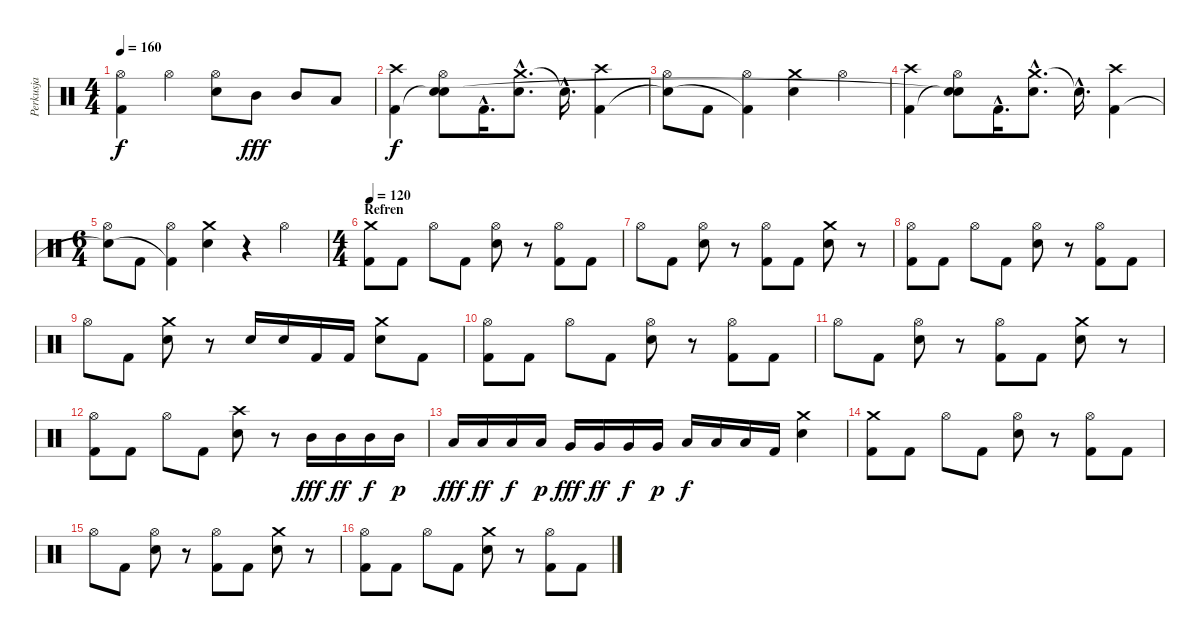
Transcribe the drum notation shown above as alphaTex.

\track ("Perkusja" "Perkusja") {instrument percussion}
\staff {score}
\articulation defaults
\ts (4 4)
\tempo 160
\clef neutral
\ks c
("Hi-Hat (open)" "Kick (hit) 2").4{dy f} "Hi-Hat (open)".4 ("Hi-Hat (open)" "Snare (hit) 2").8 "Mid Tom (hit)".8{dy fff} "Mid Tom (hit)".8 "Low Tom (hit)".8 |
("Crash high (hit)" "Kick (hit) 2").4{dy f} ("Hi-Hat (open)" "Snare (hit)"{t} "Snare (hit)").8 "Kick (hit) 2"{hac}.16{d} ("Crash medium (hit)"{hac} "Snare (hit) 2"{hac}).8{d} "Snare (hit)"{hac t}.16{d} ("Crash high (hit)" "Kick (hit) 2").4 |
("Hi-Hat (open)" "Snare (hit)"{t}).8 "Kick (hit) 2".8 ("Hi-Hat (open)" "Kick (hit) 2"{t}).4 ("Crash medium (hit)" "Snare (hit) 2").4 "Hi-Hat (open)".4 |
("Crash high (hit)" "Kick (hit) 2").4 ("Hi-Hat (open)" "Snare (hit)"{t} "Snare (hit)"{t}).8 "Kick (hit) 2"{hac}.16{d} ("Crash medium (hit)"{hac} "Snare (hit) 2"{hac}).8{d} "Snare (hit)"{hac t}.16{d} ("Crash high (hit)" "Kick (hit) 2").4 |
\ts (6 4)
("Hi-Hat (open)" "Snare (hit)"{t}).8 "Kick (hit) 2".8 ("Hi-Hat (open)" "Kick (hit) 2"{t}).4 ("Crash medium (hit)" "Snare (hit) 2").4 r.4 "Hi-Hat (open)".2 |
\ts (4 4)
\section ("" "Refren")
\tempo 120
("Crash medium (hit)" "Kick (hit) 2").8 "Kick (hit) 2".8 "Hi-Hat (open)".8 "Kick (hit) 2".8 ("Hi-Hat (open)" "Snare (hit) 2").8 r.8 ("Hi-Hat (open)" "Kick (hit) 2").8 "Kick (hit) 2".8 |
"Hi-Hat (open)".8 "Kick (hit) 2".8 ("Hi-Hat (open)" "Snare (hit) 2").8 r.8 ("Hi-Hat (open)" "Kick (hit) 2").8 "Kick (hit) 2".8 ("Crash medium (hit)" "Snare (hit) 2").8 r.8 |
("Hi-Hat (open)" "Kick (hit) 2").8 "Kick (hit) 2".8 "Hi-Hat (open)".8 "Kick (hit) 2".8 ("Hi-Hat (open)" "Snare (hit) 2").8 r.8 ("Hi-Hat (open)" "Kick (hit) 2").8 "Kick (hit) 2".8 |
"Hi-Hat (open)".8 "Kick (hit) 2".8 ("Crash medium (hit)" "Snare (hit) 2").8 r.8 "Snare (hit) 2".16 "Snare (hit) 2".16 "Kick (hit) 2".16 "Kick (hit) 2".16 ("Crash medium (hit)" "Snare (hit) 2").8 "Kick (hit) 2".8 |
("Hi-Hat (open)" "Kick (hit) 2").8 "Kick (hit) 2".8 "Hi-Hat (open)".8 "Kick (hit) 2".8 ("Hi-Hat (open)" "Snare (hit) 2").8 r.8 ("Hi-Hat (open)" "Kick (hit) 2").8 "Kick (hit) 2".8 |
"Hi-Hat (open)".8 "Kick (hit) 2".8 ("Hi-Hat (open)" "Snare (hit) 2").8 r.8 ("Hi-Hat (open)" "Kick (hit) 2").8 "Kick (hit) 2".8 ("Crash medium (hit)" "Snare (hit) 2").8 r.8 |
("Hi-Hat (open)" "Kick (hit) 2").8 "Kick (hit) 2".8 "Hi-Hat (open)".8 "Kick (hit) 2".8 ("Crash high (hit)" "Snare (hit) 2").8 r.8 "Mid Tom (hit)".16{dy fff} "Mid Tom (hit)".16{dy ff} "Mid Tom (hit)".16{dy f} "Mid Tom (hit)".16{dy p} |
"Low Tom (hit)".16{dy fff} "Low Tom (hit)".16{dy ff} "Low Tom (hit)".16{dy f} "Low Tom (hit)".16{dy p} "Very Low Tom (hit)".16{dy fff} "Very Low Tom (hit)".16{dy ff} "Very Low Tom (hit)".16{dy f} "Very Low Tom (hit)".16{dy p} "Low Floor Tom (hit)".16{dy f} "Low Floor Tom (hit)".16 "Low Floor Tom (hit)".16 "Kick (hit) 2".16 ("Crash medium (hit)" "Snare (hit) 2").4 |
("Crash medium (hit)" "Kick (hit) 2").8 "Kick (hit) 2".8 "Hi-Hat (open)".8 "Kick (hit) 2".8 ("Hi-Hat (open)" "Snare (hit) 2").8 r.8 ("Hi-Hat (open)" "Kick (hit) 2").8 "Kick (hit) 2".8 |
"Hi-Hat (open)".8 "Kick (hit) 2".8 ("Hi-Hat (open)" "Snare (hit) 2").8 r.8 ("Hi-Hat (open)" "Kick (hit) 2").8 "Kick (hit) 2".8 ("Crash medium (hit)" "Snare (hit) 2").8 r.8 |
("Hi-Hat (open)" "Kick (hit) 2").8 "Kick (hit) 2".8 "Hi-Hat (open)".8 "Kick (hit) 2".8 ("Crash medium (hit)" "Snare (hit) 2").8 r.8 ("Hi-Hat (open)" "Kick (hit) 2").8 "Kick (hit) 2".8
